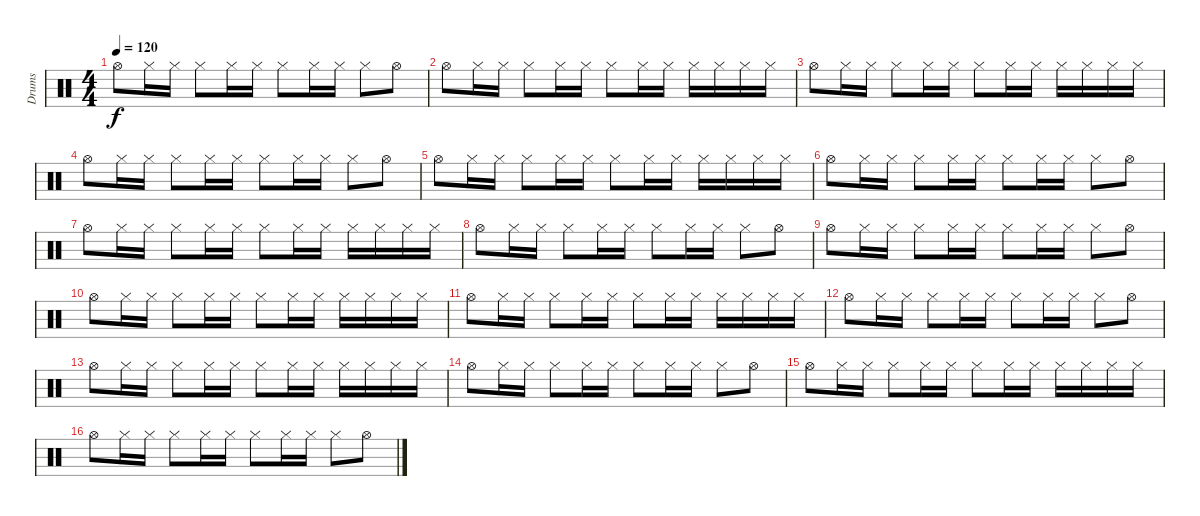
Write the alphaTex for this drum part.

\track ("Drums" "Drums") {instrument percussion}
\staff {score}
\articulation defaults
\ts (4 4)
\tempo 120
\clef neutral
\ks c "Hi-Hat (open)".8{dy f} "Hi-Hat (closed)".16 "Hi-Hat (closed)".16 "Hi-Hat (closed)".8 "Hi-Hat (closed)".16 "Hi-Hat (closed)".16 "Hi-Hat (closed)".8 "Hi-Hat (closed)".16 "Hi-Hat (closed)".16 "Hi-Hat (closed)".8 "Hi-Hat (open)".8
|
"Hi-Hat (open)".8 "Hi-Hat (closed)".16 "Hi-Hat (closed)".16 "Hi-Hat (closed)".8 "Hi-Hat (closed)".16 "Hi-Hat (closed)".16 "Hi-Hat (closed)".8 "Hi-Hat (closed)".16 "Hi-Hat (closed)".16 "Hi-Hat (closed)".16 "Hi-Hat (closed)".16 "Hi-Hat (closed)".16 "Hi-Hat (closed)".16 |
"Hi-Hat (open)".8 "Hi-Hat (closed)".16 "Hi-Hat (closed)".16 "Hi-Hat (closed)".8 "Hi-Hat (closed)".16 "Hi-Hat (closed)".16 "Hi-Hat (closed)".8 "Hi-Hat (closed)".16 "Hi-Hat (closed)".16 "Hi-Hat (closed)".16 "Hi-Hat (closed)".16 "Hi-Hat (closed)".16 "Hi-Hat (closed)".16 |
"Hi-Hat (open)".8 "Hi-Hat (closed)".16 "Hi-Hat (closed)".16 "Hi-Hat (closed)".8 "Hi-Hat (closed)".16 "Hi-Hat (closed)".16 "Hi-Hat (closed)".8 "Hi-Hat (closed)".16 "Hi-Hat (closed)".16 "Hi-Hat (closed)".8 "Hi-Hat (open)".8 |
"Hi-Hat (open)".8 "Hi-Hat (closed)".16 "Hi-Hat (closed)".16 "Hi-Hat (closed)".8 "Hi-Hat (closed)".16 "Hi-Hat (closed)".16 "Hi-Hat (closed)".8 "Hi-Hat (closed)".16 "Hi-Hat (closed)".16 "Hi-Hat (closed)".16 "Hi-Hat (closed)".16 "Hi-Hat (closed)".16 "Hi-Hat (closed)".16 |
"Hi-Hat (open)".8 "Hi-Hat (closed)".16 "Hi-Hat (closed)".16 "Hi-Hat (closed)".8 "Hi-Hat (closed)".16 "Hi-Hat (closed)".16 "Hi-Hat (closed)".8 "Hi-Hat (closed)".16 "Hi-Hat (closed)".16 "Hi-Hat (closed)".8 "Hi-Hat (open)".8 |
"Hi-Hat (open)".8 "Hi-Hat (closed)".16 "Hi-Hat (closed)".16 "Hi-Hat (closed)".8 "Hi-Hat (closed)".16 "Hi-Hat (closed)".16 "Hi-Hat (closed)".8 "Hi-Hat (closed)".16 "Hi-Hat (closed)".16 "Hi-Hat (closed)".16 "Hi-Hat (closed)".16 "Hi-Hat (closed)".16 "Hi-Hat (closed)".16 |
"Hi-Hat (open)".8 "Hi-Hat (closed)".16 "Hi-Hat (closed)".16 "Hi-Hat (closed)".8 "Hi-Hat (closed)".16 "Hi-Hat (closed)".16 "Hi-Hat (closed)".8 "Hi-Hat (closed)".16 "Hi-Hat (closed)".16 "Hi-Hat (closed)".8 "Hi-Hat (open)".8 |
"Hi-Hat (open)".8 "Hi-Hat (closed)".16 "Hi-Hat (closed)".16 "Hi-Hat (closed)".8 "Hi-Hat (closed)".16 "Hi-Hat (closed)".16 "Hi-Hat (closed)".8 "Hi-Hat (closed)".16 "Hi-Hat (closed)".16 "Hi-Hat (closed)".8 "Hi-Hat (open)".8 |
"Hi-Hat (open)".8 "Hi-Hat (closed)".16 "Hi-Hat (closed)".16 "Hi-Hat (closed)".8 "Hi-Hat (closed)".16 "Hi-Hat (closed)".16 "Hi-Hat (closed)".8 "Hi-Hat (closed)".16 "Hi-Hat (closed)".16 "Hi-Hat (closed)".16 "Hi-Hat (closed)".16 "Hi-Hat (closed)".16 "Hi-Hat (closed)".16 |
"Hi-Hat (open)".8 "Hi-Hat (closed)".16 "Hi-Hat (closed)".16 "Hi-Hat (closed)".8 "Hi-Hat (closed)".16 "Hi-Hat (closed)".16 "Hi-Hat (closed)".8 "Hi-Hat (closed)".16 "Hi-Hat (closed)".16 "Hi-Hat (closed)".16 "Hi-Hat (closed)".16 "Hi-Hat (closed)".16 "Hi-Hat (closed)".16 |
"Hi-Hat (open)".8 "Hi-Hat (closed)".16 "Hi-Hat (closed)".16 "Hi-Hat (closed)".8 "Hi-Hat (closed)".16 "Hi-Hat (closed)".16 "Hi-Hat (closed)".8 "Hi-Hat (closed)".16 "Hi-Hat (closed)".16 "Hi-Hat (closed)".8 "Hi-Hat (open)".8 |
"Hi-Hat (open)".8 "Hi-Hat (closed)".16 "Hi-Hat (closed)".16 "Hi-Hat (closed)".8 "Hi-Hat (closed)".16 "Hi-Hat (closed)".16 "Hi-Hat (closed)".8 "Hi-Hat (closed)".16 "Hi-Hat (closed)".16 "Hi-Hat (closed)".16 "Hi-Hat (closed)".16 "Hi-Hat (closed)".16 "Hi-Hat (closed)".16 |
"Hi-Hat (open)".8 "Hi-Hat (closed)".16 "Hi-Hat (closed)".16 "Hi-Hat (closed)".8 "Hi-Hat (closed)".16 "Hi-Hat (closed)".16 "Hi-Hat (closed)".8 "Hi-Hat (closed)".16 "Hi-Hat (closed)".16 "Hi-Hat (closed)".8 "Hi-Hat (open)".8 |
"Hi-Hat (open)".8 "Hi-Hat (closed)".16 "Hi-Hat (closed)".16 "Hi-Hat (closed)".8 "Hi-Hat (closed)".16 "Hi-Hat (closed)".16 "Hi-Hat (closed)".8 "Hi-Hat (closed)".16 "Hi-Hat (closed)".16 "Hi-Hat (closed)".16 "Hi-Hat (closed)".16 "Hi-Hat (closed)".16 "Hi-Hat (closed)".16 |
"Hi-Hat (open)".8 "Hi-Hat (closed)".16 "Hi-Hat (closed)".16 "Hi-Hat (closed)".8 "Hi-Hat (closed)".16 "Hi-Hat (closed)".16 "Hi-Hat (closed)".8 "Hi-Hat (closed)".16 "Hi-Hat (closed)".16 "Hi-Hat (closed)".8 "Hi-Hat (open)".8
